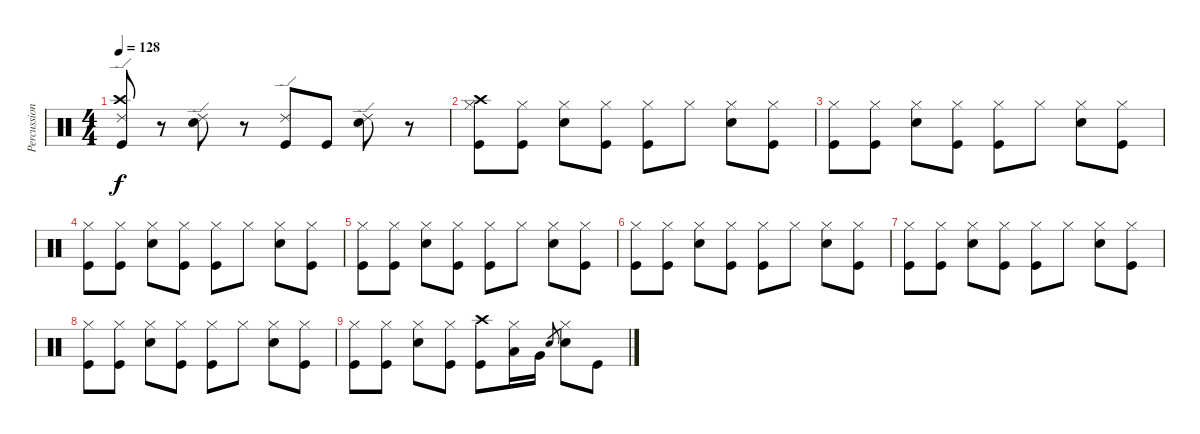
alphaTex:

\track ("Percussions" "Percussion") {instrument percussion}
\staff {score}
\articulation defaults
\ts (4 4)
\tempo 128
\clef neutral
\ks c
("Ride (edge) 2" "Crash high (hit)" "Kick (hit)").8{dy f} r.8 ("Ride (edge) 2" "Electric Snare (hit)").8 r.8 ("Ride (edge) 2" "Kick (hit)").8 "Kick (hit)".8 ("Ride (edge) 2" "Electric Snare (hit)").8 r.8 |
("Hi-Hat (closed)" "Crash high (hit)" "Kick (hit)").8 ("Hi-Hat (closed)" "Kick (hit)").8 ("Hi-Hat (closed)" "Electric Snare (hit)").8 ("Hi-Hat (closed)" "Kick (hit)").8 ("Hi-Hat (closed)" "Kick (hit)").8 "Hi-Hat (closed)".8 ("Hi-Hat (closed)" "Electric Snare (hit)").8 ("Hi-Hat (closed)" "Kick (hit)").8 |
("Hi-Hat (closed)" "Kick (hit)").8 ("Hi-Hat (closed)" "Kick (hit)").8 ("Hi-Hat (closed)" "Electric Snare (hit)").8 ("Hi-Hat (closed)" "Kick (hit)").8 ("Hi-Hat (closed)" "Kick (hit)").8 "Hi-Hat (closed)".8 ("Hi-Hat (closed)" "Electric Snare (hit)").8 ("Hi-Hat (closed)" "Kick (hit)").8 |
("Hi-Hat (closed)" "Kick (hit)").8 ("Hi-Hat (closed)" "Kick (hit)").8 ("Hi-Hat (closed)" "Electric Snare (hit)").8 ("Hi-Hat (closed)" "Kick (hit)").8 ("Hi-Hat (closed)" "Kick (hit)").8 "Hi-Hat (closed)".8 ("Hi-Hat (closed)" "Electric Snare (hit)").8 ("Hi-Hat (closed)" "Kick (hit)").8 |
("Hi-Hat (closed)" "Kick (hit)").8 ("Hi-Hat (closed)" "Kick (hit)").8 ("Hi-Hat (closed)" "Electric Snare (hit)").8 ("Hi-Hat (closed)" "Kick (hit)").8 ("Hi-Hat (closed)" "Kick (hit)").8 "Hi-Hat (closed)".8 ("Hi-Hat (closed)" "Electric Snare (hit)").8 ("Hi-Hat (closed)" "Kick (hit)").8 |
("Hi-Hat (closed)" "Kick (hit)").8 ("Hi-Hat (closed)" "Kick (hit)").8 ("Hi-Hat (closed)" "Electric Snare (hit)").8 ("Hi-Hat (closed)" "Kick (hit)").8 ("Hi-Hat (closed)" "Kick (hit)").8 "Hi-Hat (closed)".8 ("Hi-Hat (closed)" "Electric Snare (hit)").8 ("Hi-Hat (closed)" "Kick (hit)").8 |
("Hi-Hat (closed)" "Kick (hit)").8 ("Hi-Hat (closed)" "Kick (hit)").8 ("Hi-Hat (closed)" "Electric Snare (hit)").8 ("Hi-Hat (closed)" "Kick (hit)").8 ("Hi-Hat (closed)" "Kick (hit)").8 "Hi-Hat (closed)".8 ("Hi-Hat (closed)" "Electric Snare (hit)").8 ("Hi-Hat (closed)" "Kick (hit)").8 |
("Hi-Hat (closed)" "Kick (hit)").8 ("Hi-Hat (closed)" "Kick (hit)").8 ("Hi-Hat (closed)" "Electric Snare (hit)").8 ("Hi-Hat (closed)" "Kick (hit)").8 ("Hi-Hat (closed)" "Kick (hit)").8 "Hi-Hat (closed)".8 ("Hi-Hat (closed)" "Electric Snare (hit)").8 ("Hi-Hat (closed)" "Kick (hit)").8 |
("Hi-Hat (closed)" "Kick (hit)").8 ("Hi-Hat (closed)" "Kick (hit)").8 ("Hi-Hat (closed)" "Electric Snare (hit)").8 ("Hi-Hat (closed)" "Kick (hit)").8 ("Crash high (hit)" "Kick (hit)").8 ("Hi-Hat (closed)" "Low Tom (hit)").16 "Very Low Tom (hit)".16 "Electric Snare (hit)".8{gr} ("Hi-Hat (closed)" "Electric Snare (hit)").8 "Kick (hit)".8
